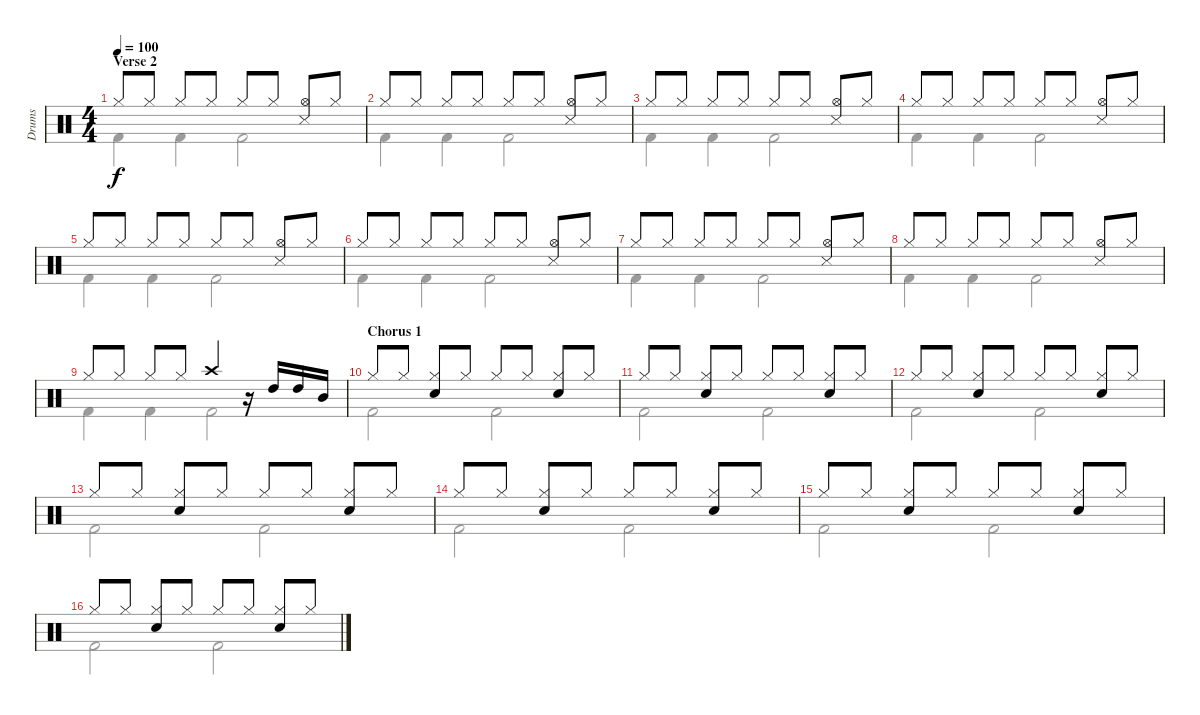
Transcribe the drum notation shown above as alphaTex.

\track ("Drums" "Drums") {instrument percussion}
\staff {score}
\articulation defaults
\voice
\ts (4 4)
\section ("" "Verse 2")
\tempo 100
\clef neutral
\ks c "Hi-Hat (closed)".8{dy f} "Hi-Hat (closed)".8 "Hi-Hat (closed)".8 "Hi-Hat (closed)".8 "Hi-Hat (closed)".8 "Hi-Hat (closed)".8
("Hi-Hat (open)" "Snare (side stick) 3").8 "Hi-Hat (closed)".8 |
"Hi-Hat (closed)".8 "Hi-Hat (closed)".8 "Hi-Hat (closed)".8 "Hi-Hat (closed)".8 "Hi-Hat (closed)".8 "Hi-Hat (closed)".8 ("Hi-Hat (open)" "Snare (side stick) 3").8 "Hi-Hat (closed)".8 |
"Hi-Hat (closed)".8 "Hi-Hat (closed)".8 "Hi-Hat (closed)".8 "Hi-Hat (closed)".8 "Hi-Hat (closed)".8 "Hi-Hat (closed)".8 ("Hi-Hat (open)" "Snare (side stick) 3").8 "Hi-Hat (closed)".8 |
"Hi-Hat (closed)".8 "Hi-Hat (closed)".8 "Hi-Hat (closed)".8 "Hi-Hat (closed)".8 "Hi-Hat (closed)".8 "Hi-Hat (closed)".8 ("Hi-Hat (open)" "Snare (side stick) 3").8 "Hi-Hat (closed)".8 |
"Hi-Hat (closed)".8 "Hi-Hat (closed)".8 "Hi-Hat (closed)".8 "Hi-Hat (closed)".8 "Hi-Hat (closed)".8 "Hi-Hat (closed)".8 ("Hi-Hat (open)" "Snare (side stick) 3").8 "Hi-Hat (closed)".8 |
"Hi-Hat (closed)".8 "Hi-Hat (closed)".8 "Hi-Hat (closed)".8 "Hi-Hat (closed)".8 "Hi-Hat (closed)".8 "Hi-Hat (closed)".8 ("Hi-Hat (open)" "Snare (side stick) 3").8 "Hi-Hat (closed)".8 |
"Hi-Hat (closed)".8 "Hi-Hat (closed)".8 "Hi-Hat (closed)".8 "Hi-Hat (closed)".8 "Hi-Hat (closed)".8 "Hi-Hat (closed)".8 ("Hi-Hat (open)" "Snare (side stick) 3").8 "Hi-Hat (closed)".8 |
"Hi-Hat (closed)".8 "Hi-Hat (closed)".8 "Hi-Hat (closed)".8 "Hi-Hat (closed)".8 "Hi-Hat (closed)".8 "Hi-Hat (closed)".8 ("Hi-Hat (open)" "Snare (side stick) 3").8 "Hi-Hat (closed)".8 |
"Hi-Hat (closed)".8 "Hi-Hat (closed)".8 "Hi-Hat (closed)".8 "Hi-Hat (closed)".8 "Crash high (hit)".4 r.16 "High Tom (hit)".16 "High Tom (hit)".16 "Mid Tom (hit)".16 |
\section ("" "Chorus 1")
"Hi-Hat (closed)".8 "Hi-Hat (closed)".8 ("Hi-Hat (closed)" "Snare (hit) 2").8 "Hi-Hat (closed)".8 "Hi-Hat (closed)".8 "Hi-Hat (closed)".8 ("Hi-Hat (closed)" "Snare (hit) 2").8 "Hi-Hat (closed)".8 |
"Hi-Hat (closed)".8 "Hi-Hat (closed)".8 ("Hi-Hat (closed)" "Snare (hit) 2").8 "Hi-Hat (closed)".8 "Hi-Hat (closed)".8 "Hi-Hat (closed)".8 ("Hi-Hat (closed)" "Snare (hit) 2").8 "Hi-Hat (closed)".8 |
"Hi-Hat (closed)".8 "Hi-Hat (closed)".8 ("Hi-Hat (closed)" "Snare (hit) 2").8 "Hi-Hat (closed)".8 "Hi-Hat (closed)".8 "Hi-Hat (closed)".8 ("Hi-Hat (closed)" "Snare (hit) 2").8 "Hi-Hat (closed)".8 |
"Hi-Hat (closed)".8 "Hi-Hat (closed)".8 ("Hi-Hat (closed)" "Snare (hit) 2").8 "Hi-Hat (closed)".8 "Hi-Hat (closed)".8 "Hi-Hat (closed)".8 ("Hi-Hat (closed)" "Snare (hit) 2").8 "Hi-Hat (closed)".8 |
"Hi-Hat (closed)".8 "Hi-Hat (closed)".8 ("Hi-Hat (closed)" "Snare (hit) 2").8 "Hi-Hat (closed)".8 "Hi-Hat (closed)".8 "Hi-Hat (closed)".8 ("Hi-Hat (closed)" "Snare (hit) 2").8 "Hi-Hat (closed)".8 |
"Hi-Hat (closed)".8 "Hi-Hat (closed)".8 ("Hi-Hat (closed)" "Snare (hit) 2").8 "Hi-Hat (closed)".8 "Hi-Hat (closed)".8 "Hi-Hat (closed)".8 ("Hi-Hat (closed)" "Snare (hit) 2").8 "Hi-Hat (closed)".8 |
"Hi-Hat (closed)".8 "Hi-Hat (closed)".8 ("Hi-Hat (closed)" "Snare (hit) 2").8 "Hi-Hat (closed)".8 "Hi-Hat (closed)".8 "Hi-Hat (closed)".8 ("Hi-Hat (closed)" "Snare (hit) 2").8 "Hi-Hat (closed)".8
\voice
\clef neutral
\ottava regular
\simile none
\ks c "Kick (hit) 2".4{dy f} "Kick (hit) 2".4 "Kick (hit) 2".2
|
"Kick (hit) 2".4 "Kick (hit) 2".4 "Kick (hit) 2".2 |
"Kick (hit) 2".4 "Kick (hit) 2".4 "Kick (hit) 2".2 |
"Kick (hit) 2".4 "Kick (hit) 2".4 "Kick (hit) 2".2 |
"Kick (hit) 2".4 "Kick (hit) 2".4 "Kick (hit) 2".2 |
"Kick (hit) 2".4 "Kick (hit) 2".4 "Kick (hit) 2".2 |
"Kick (hit) 2".4 "Kick (hit) 2".4 "Kick (hit) 2".2 |
"Kick (hit) 2".4 "Kick (hit) 2".4 "Kick (hit) 2".2 |
"Kick (hit) 2".4 "Kick (hit) 2".4 "Kick (hit) 2".2 |
"Kick (hit) 2".2 "Kick (hit) 2".2 |
"Kick (hit) 2".2 "Kick (hit) 2".2 |
"Kick (hit) 2".2 "Kick (hit) 2".2 |
"Kick (hit) 2".2 "Kick (hit) 2".2 |
"Kick (hit) 2".2 "Kick (hit) 2".2 |
"Kick (hit) 2".2 "Kick (hit) 2".2 |
"Kick (hit) 2".2 "Kick (hit) 2".2
